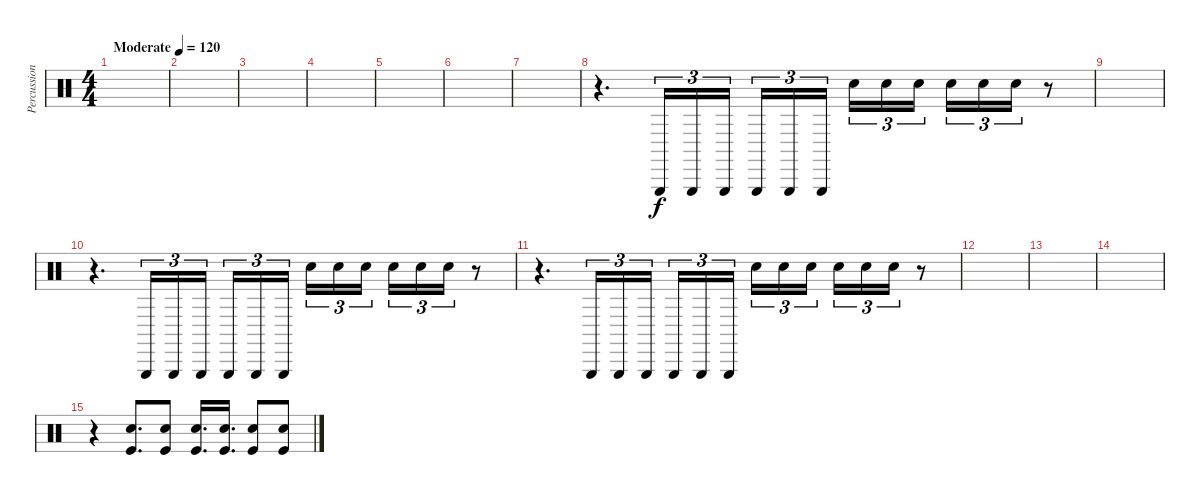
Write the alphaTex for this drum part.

\track ("Percussion" "Percussion") {instrument percussion}
\staff {score}
\articulation defaults
\ts (4 4)
\tempo (120 "Moderate")
\clef neutral
\ks c
|
|
|
|
|
|
|
r.4{d} "Triangle (hit)".16{tu (3 2)} "Triangle (hit)".16{tu (3 2)} "Triangle (hit)".16{tu (3 2)} "Triangle (hit)".16{tu (3 2)} "Triangle (hit)".16{tu (3 2)} "Triangle (hit)".16{tu (3 2) beam splitsecondary} "Snare (hit) 2".16{tu (3 2)} "Snare (hit) 2".16{tu (3 2)} "Snare (hit) 2".16{tu (3 2)} "Snare (hit) 2".16{tu (3 2)} "Snare (hit) 2".16{tu (3 2)} "Snare (hit) 2".16{tu (3 2)} r.8 |
|
r.4{d} "Triangle (hit)".16{tu (3 2)} "Triangle (hit)".16{tu (3 2)} "Triangle (hit)".16{tu (3 2)} "Triangle (hit)".16{tu (3 2)} "Triangle (hit)".16{tu (3 2)} "Triangle (hit)".16{tu (3 2) beam splitsecondary} "Snare (hit) 2".16{tu (3 2)} "Snare (hit) 2".16{tu (3 2)} "Snare (hit) 2".16{tu (3 2)} "Snare (hit) 2".16{tu (3 2)} "Snare (hit) 2".16{tu (3 2)} "Snare (hit) 2".16{tu (3 2)} r.8 |
r.4{d} "Triangle (hit)".16{tu (3 2)} "Triangle (hit)".16{tu (3 2)} "Triangle (hit)".16{tu (3 2)} "Triangle (hit)".16{tu (3 2)} "Triangle (hit)".16{tu (3 2)} "Triangle (hit)".16{tu (3 2) beam splitsecondary} "Snare (hit) 2".16{tu (3 2)} "Snare (hit) 2".16{tu (3 2)} "Snare (hit) 2".16{tu (3 2)} "Snare (hit) 2".16{tu (3 2)} "Snare (hit) 2".16{tu (3 2)} "Snare (hit) 2".16{tu (3 2)} r.8 |
|
|
|
r.4 ("Snare (hit) 2" "Kick (hit)").8{d} ("Snare (hit) 2" "Kick (hit)").8 ("Snare (hit) 2" "Kick (hit)").16{d} ("Snare (hit) 2" "Kick (hit)").16{d} ("Snare (hit) 2" "Kick (hit)").8 ("Snare (hit) 2" "Kick (hit)").8
